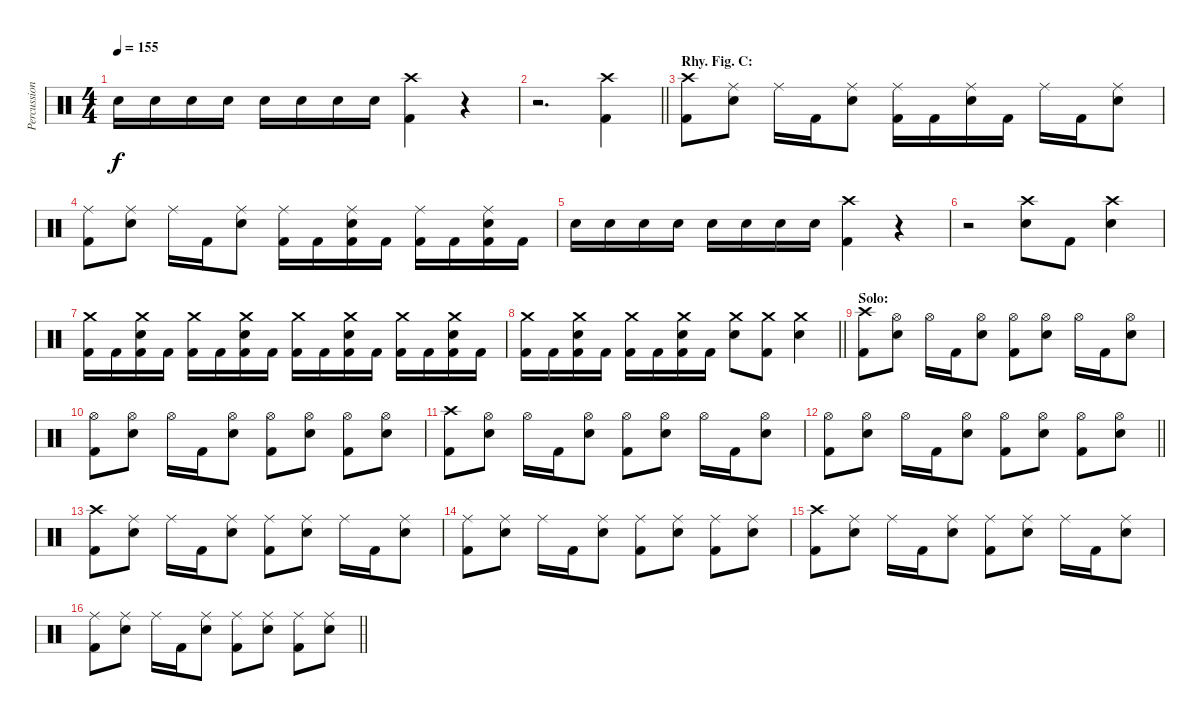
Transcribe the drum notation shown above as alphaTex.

\track ("Percussion" "Percussion") {instrument percussion}
\staff {score}
\articulation defaults
\ts (4 4)
\tempo 155
\clef neutral
\ks c "Electric Snare (hit)".16{dy f} "Electric Snare (hit)".16 "Electric Snare (hit)".16 "Electric Snare (hit)".16 "Electric Snare (hit)".16 "Electric Snare (hit)".16 "Electric Snare (hit)".16 "Electric Snare (hit)".16
("Crash high (hit)" "Kick (hit) 2").4 r.4 |
\barLineRight lightlight
r.2{d} ("Crash high (hit)" "Kick (hit) 2").4 |
\section ("" "Rhy. Fig. C:")
("Crash high (hit)" "Kick (hit) 2").8 ("Ride (middle)" "Electric Snare (hit)").8 "Ride (middle)".16 "Kick (hit) 2".16 ("Ride (middle)" "Electric Snare (hit)").8 ("Ride (middle)" "Kick (hit) 2").16 "Kick (hit) 2".16 ("Ride (middle)" "Electric Snare (hit)").16 "Kick (hit) 2".16 "Ride (middle)".16 "Kick (hit) 2".16 ("Ride (middle)" "Electric Snare (hit)").8 |
("Ride (middle)" "Kick (hit) 2").8 ("Ride (middle)" "Electric Snare (hit)").8 "Ride (middle)".16 "Kick (hit) 2".16 ("Ride (middle)" "Electric Snare (hit)").8 ("Ride (middle)" "Kick (hit) 2").16 "Kick (hit) 2".16 ("Ride (middle)" "Electric Snare (hit)" "Kick (hit) 2").16 "Kick (hit) 2".16 ("Ride (middle)" "Kick (hit) 2").16 "Kick (hit) 2".16 ("Ride (middle)" "Electric Snare (hit)" "Kick (hit) 2").16 "Kick (hit) 2".16 |
"Electric Snare (hit)".16 "Electric Snare (hit)".16 "Electric Snare (hit)".16 "Electric Snare (hit)".16 "Electric Snare (hit)".16 "Electric Snare (hit)".16 "Electric Snare (hit)".16 "Electric Snare (hit)".16 ("Crash high (hit)" "Kick (hit) 2").4 r.4 |
r.2 ("Crash high (hit)" "Electric Snare (hit)").8 "Kick (hit) 2".8 ("Crash high (hit)" "Electric Snare (hit)").4 |
("Crash medium (hit)" "Kick (hit) 2").16 "Kick (hit) 2".16 ("Crash medium (hit)" "Electric Snare (hit)" "Kick (hit) 2").16 "Kick (hit) 2".16 ("Crash medium (hit)" "Kick (hit) 2").16 "Kick (hit) 2".16 ("Crash medium (hit)" "Electric Snare (hit)" "Kick (hit) 2").16 "Kick (hit) 2".16 ("Crash medium (hit)" "Kick (hit) 2").16 "Kick (hit) 2".16 ("Crash medium (hit)" "Electric Snare (hit)" "Kick (hit) 2").16 "Kick (hit) 2".16 ("Crash medium (hit)" "Kick (hit) 2").16 "Kick (hit) 2".16 ("Crash medium (hit)" "Electric Snare (hit)" "Kick (hit) 2").16 "Kick (hit) 2".16 |
\barLineRight lightlight
("Crash medium (hit)" "Kick (hit) 2").16 "Kick (hit) 2".16 ("Crash medium (hit)" "Electric Snare (hit)" "Kick (hit) 2").16 "Kick (hit) 2".16 ("Crash medium (hit)" "Kick (hit) 2").16 "Kick (hit) 2".16 ("Crash medium (hit)" "Electric Snare (hit)" "Kick (hit) 2").16 "Kick (hit) 2".16 ("Crash medium (hit)" "Electric Snare (hit)").8 ("Crash medium (hit)" "Kick (hit) 2").8 ("Crash medium (hit)" "Electric Snare (hit)").4 |
\section ("" "Solo:")
("Crash high (hit)" "Kick (hit) 2").8 ("Hi-Hat (open)" "Electric Snare (hit)").8 "Hi-Hat (open)".16 "Kick (hit) 2".16 ("Hi-Hat (open)" "Electric Snare (hit)").8 ("Hi-Hat (open)" "Kick (hit) 2").8 ("Hi-Hat (open)" "Electric Snare (hit)").8 "Hi-Hat (open)".16 "Kick (hit) 2".16 ("Hi-Hat (open)" "Electric Snare (hit)").8 |
("Hi-Hat (open)" "Kick (hit) 2").8 ("Hi-Hat (open)" "Electric Snare (hit)").8 "Hi-Hat (open)".16 "Kick (hit) 2".16 ("Hi-Hat (open)" "Electric Snare (hit)").8 ("Hi-Hat (open)" "Kick (hit) 2").8 ("Hi-Hat (open)" "Electric Snare (hit)").8 ("Hi-Hat (open)" "Kick (hit) 2").8 ("Hi-Hat (open)" "Electric Snare (hit)").8 |
("Crash high (hit)" "Kick (hit) 2").8 ("Hi-Hat (open)" "Electric Snare (hit)").8 "Hi-Hat (open)".16 "Kick (hit) 2".16 ("Hi-Hat (open)" "Electric Snare (hit)").8 ("Hi-Hat (open)" "Kick (hit) 2").8 ("Hi-Hat (open)" "Electric Snare (hit)").8 "Hi-Hat (open)".16 "Kick (hit) 2".16 ("Hi-Hat (open)" "Electric Snare (hit)").8 |
\barLineRight lightlight
("Hi-Hat (open)" "Kick (hit) 2").8 ("Hi-Hat (open)" "Electric Snare (hit)").8 "Hi-Hat (open)".16 "Kick (hit) 2".16 ("Hi-Hat (open)" "Electric Snare (hit)").8 ("Hi-Hat (open)" "Kick (hit) 2").8 ("Hi-Hat (open)" "Electric Snare (hit)").8 ("Hi-Hat (open)" "Kick (hit) 2").8 ("Hi-Hat (open)" "Electric Snare (hit)").8 |
("Crash high (hit)" "Kick (hit) 2").8 ("Ride (middle)" "Electric Snare (hit)").8 "Ride (middle)".16 "Kick (hit) 2".16 ("Ride (middle)" "Electric Snare (hit)").8 ("Ride (middle)" "Kick (hit) 2").8 ("Ride (middle)" "Electric Snare (hit)").8 "Ride (middle)".16 "Kick (hit) 2".16 ("Ride (middle)" "Electric Snare (hit)").8 |
("Ride (middle)" "Kick (hit) 2").8 ("Ride (middle)" "Electric Snare (hit)").8 "Ride (middle)".16 "Kick (hit) 2".16 ("Ride (middle)" "Electric Snare (hit)").8 ("Ride (middle)" "Kick (hit) 2").8 ("Ride (middle)" "Electric Snare (hit)").8 ("Ride (middle)" "Kick (hit) 2").8 ("Ride (middle)" "Electric Snare (hit)").8 |
("Crash high (hit)" "Kick (hit) 2").8 ("Ride (middle)" "Electric Snare (hit)").8 "Ride (middle)".16 "Kick (hit) 2".16 ("Ride (middle)" "Electric Snare (hit)").8 ("Ride (middle)" "Kick (hit) 2").8 ("Ride (middle)" "Electric Snare (hit)").8 "Ride (middle)".16 "Kick (hit) 2".16 ("Ride (middle)" "Electric Snare (hit)").8 |
\barLineRight lightlight
("Ride (middle)" "Kick (hit) 2").8 ("Ride (middle)" "Electric Snare (hit)").8 "Ride (middle)".16 "Kick (hit) 2".16 ("Ride (middle)" "Electric Snare (hit)").8 ("Ride (middle)" "Kick (hit) 2").8 ("Ride (middle)" "Electric Snare (hit)").8 ("Ride (middle)" "Kick (hit) 2").8 ("Ride (middle)" "Electric Snare (hit)").8
